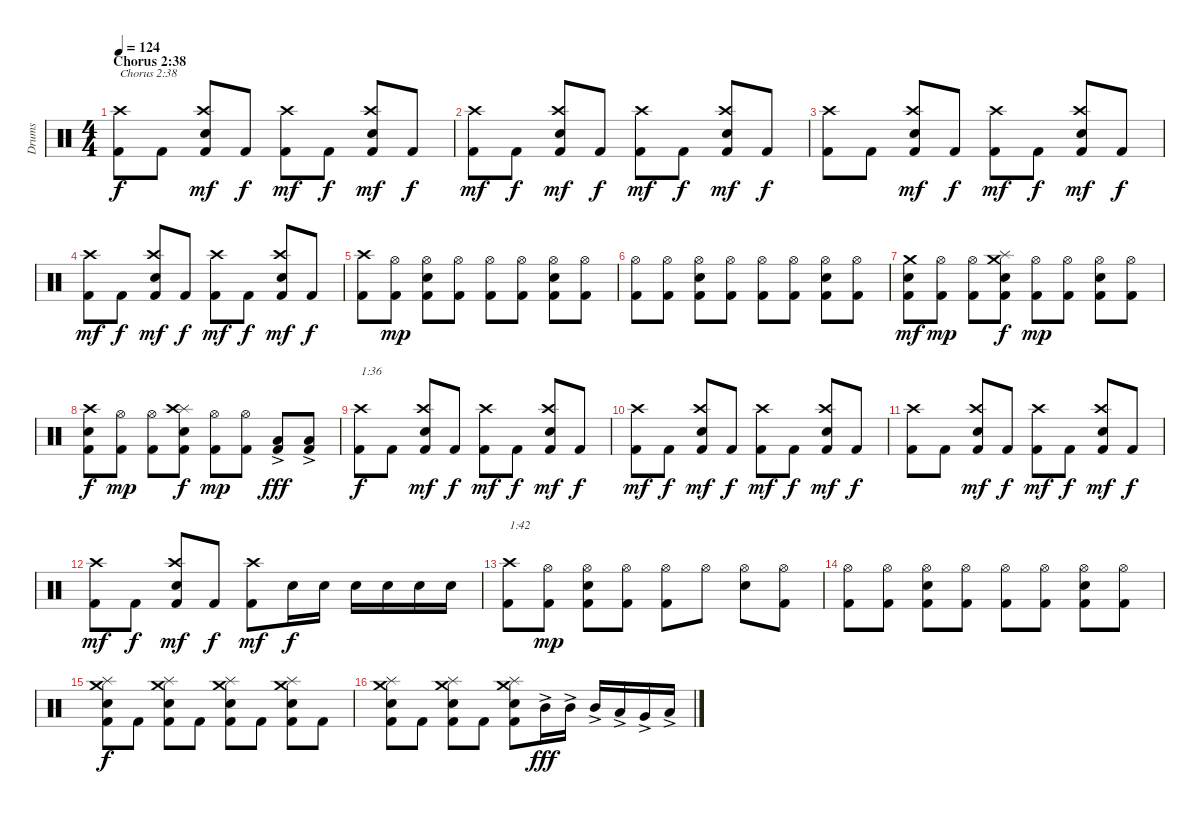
\track ("Drums" "Drums") {instrument percussion}
\staff {score}
\articulation defaults
\ts (4 4)
\section ("" "Chorus 2:38")
\tempo 124
\clef neutral
\ks c
("Kick (hit) 2" "Crash high (hit)").8{txt "Chorus 2:38" dy f} "Kick (hit) 2".8 ("Kick (hit) 2" "Electric Snare (hit)" "Crash high (hit)").8{dy mf} "Kick (hit) 2".8{dy f} ("Kick (hit) 2" "Crash high (hit)").8{dy mf} "Kick (hit) 2".8{dy f} ("Kick (hit) 2" "Electric Snare (hit)" "Crash high (hit)").8{dy mf} "Kick (hit) 2".8{dy f} |
("Kick (hit) 2" "Crash high (hit)").8{dy mf} "Kick (hit) 2".8{dy f} ("Kick (hit) 2" "Electric Snare (hit)" "Crash high (hit)").8{dy mf} "Kick (hit) 2".8{dy f} ("Kick (hit) 2" "Crash high (hit)").8{dy mf} "Kick (hit) 2".8{dy f} ("Kick (hit) 2" "Electric Snare (hit)" "Crash high (hit)").8{dy mf} "Kick (hit) 2".8{dy f} |
("Kick (hit) 2" "Crash high (hit)").8 "Kick (hit) 2".8 ("Kick (hit) 2" "Electric Snare (hit)" "Crash high (hit)").8{dy mf} "Kick (hit) 2".8{dy f} ("Kick (hit) 2" "Crash high (hit)").8{dy mf} "Kick (hit) 2".8{dy f} ("Kick (hit) 2" "Electric Snare (hit)" "Crash high (hit)").8{dy mf} "Kick (hit) 2".8{dy f} |
("Kick (hit) 2" "Crash high (hit)").8{dy mf} "Kick (hit) 2".8{dy f} ("Kick (hit) 2" "Electric Snare (hit)" "Crash high (hit)").8{dy mf} "Kick (hit) 2".8{dy f} ("Kick (hit) 2" "Crash high (hit)").8{dy mf} "Kick (hit) 2".8{dy f} ("Kick (hit) 2" "Electric Snare (hit)" "Crash high (hit)").8{dy mf} "Kick (hit) 2".8{dy f} |
("Kick (hit) 2" "Crash high (hit)").8 ("Kick (hit) 2" "Hi-Hat (open)").8{dy mp} ("Kick (hit) 2" "Electric Snare (hit)" "Hi-Hat (open)").8 ("Kick (hit) 2" "Hi-Hat (open)").8 ("Kick (hit) 2" "Hi-Hat (open)").8 ("Kick (hit) 2" "Hi-Hat (open)").8 ("Kick (hit) 2" "Electric Snare (hit)" "Hi-Hat (open)").8 ("Kick (hit) 2" "Hi-Hat (open)").8 |
("Kick (hit) 2" "Hi-Hat (open)").8 ("Kick (hit) 2" "Hi-Hat (open)").8 ("Kick (hit) 2" "Electric Snare (hit)" "Hi-Hat (open)").8 ("Kick (hit) 2" "Hi-Hat (open)").8 ("Kick (hit) 2" "Hi-Hat (open)").8 ("Kick (hit) 2" "Hi-Hat (open)").8 ("Kick (hit) 2" "Electric Snare (hit)" "Hi-Hat (open)").8 ("Kick (hit) 2" "Hi-Hat (open)").8 |
("Kick (hit) 2" "Electric Snare (hit)" "Crash medium (hit)").8{dy mf} ("Kick (hit) 2" "Hi-Hat (open)").8{dy mp} ("Kick (hit) 2" "Hi-Hat (open)").8 ("Kick (hit) 2" "Electric Snare (hit)" "Splash (hit)" "Crash medium (hit)").8{dy f} ("Kick (hit) 2" "Hi-Hat (open)").8{dy mp} ("Kick (hit) 2" "Hi-Hat (open)").8 ("Kick (hit) 2" "Electric Snare (hit)" "Hi-Hat (open)").8 ("Kick (hit) 2" "Hi-Hat (open)").8 |
("Kick (hit) 2" "Electric Snare (hit)" "Crash high (hit)").8{dy f} ("Kick (hit) 2" "Hi-Hat (open)").8{dy mp} ("Kick (hit) 2" "Hi-Hat (open)").8 ("Kick (hit) 2" "Electric Snare (hit)" "Splash (hit)" "Crash high (hit)").8{dy f} ("Kick (hit) 2" "Hi-Hat (open)").8{dy mp} ("Kick (hit) 2" "Hi-Hat (open)").8 ("Kick (hit) 2" "Low Tom (hit)"{ac}).8{dy fff} ("Kick (hit) 2" "Low Tom (hit)"{ac}).8 |
("Kick (hit) 2" "Crash high (hit)").8{txt "1:36" dy f} "Kick (hit) 2".8 ("Kick (hit) 2" "Electric Snare (hit)" "Crash high (hit)").8{dy mf} "Kick (hit) 2".8{dy f} ("Kick (hit) 2" "Crash high (hit)").8{dy mf} "Kick (hit) 2".8{dy f} ("Kick (hit) 2" "Electric Snare (hit)" "Crash high (hit)").8{dy mf} "Kick (hit) 2".8{dy f} |
("Kick (hit) 2" "Crash high (hit)").8{dy mf} "Kick (hit) 2".8{dy f} ("Kick (hit) 2" "Electric Snare (hit)" "Crash high (hit)").8{dy mf} "Kick (hit) 2".8{dy f} ("Kick (hit) 2" "Crash high (hit)").8{dy mf} "Kick (hit) 2".8{dy f} ("Kick (hit) 2" "Electric Snare (hit)" "Crash high (hit)").8{dy mf} "Kick (hit) 2".8{dy f} |
("Kick (hit) 2" "Crash high (hit)").8 "Kick (hit) 2".8 ("Kick (hit) 2" "Electric Snare (hit)" "Crash high (hit)").8{dy mf} "Kick (hit) 2".8{dy f} ("Kick (hit) 2" "Crash high (hit)").8{dy mf} "Kick (hit) 2".8{dy f} ("Kick (hit) 2" "Electric Snare (hit)" "Crash high (hit)").8{dy mf} "Kick (hit) 2".8{dy f} |
("Kick (hit) 2" "Crash high (hit)").8{dy mf} "Kick (hit) 2".8{dy f} ("Kick (hit) 2" "Electric Snare (hit)" "Crash high (hit)").8{dy mf} "Kick (hit) 2".8{dy f} ("Kick (hit) 2" "Crash high (hit)").8{dy mf} "Electric Snare (hit)".16{dy f} "Electric Snare (hit)".16 "Electric Snare (hit)".16 "Electric Snare (hit)".16 "Electric Snare (hit)".16 "Electric Snare (hit)".16 |
("Kick (hit) 2" "Crash high (hit)").8{txt "1:42"} ("Kick (hit) 2" "Hi-Hat (open)").8{dy mp} ("Kick (hit) 2" "Electric Snare (hit)" "Hi-Hat (open)").8 ("Kick (hit) 2" "Hi-Hat (open)").8 ("Kick (hit) 2" "Hi-Hat (open)").8 "Hi-Hat (open)".8 ("Electric Snare (hit)" "Hi-Hat (open)").8 ("Kick (hit) 2" "Hi-Hat (open)").8 |
("Kick (hit) 2" "Hi-Hat (open)").8 ("Kick (hit) 2" "Hi-Hat (open)").8 ("Kick (hit) 2" "Electric Snare (hit)" "Hi-Hat (open)").8 ("Kick (hit) 2" "Hi-Hat (open)").8 ("Kick (hit) 2" "Hi-Hat (open)").8 ("Kick (hit) 2" "Hi-Hat (open)").8 ("Kick (hit) 2" "Electric Snare (hit)" "Hi-Hat (open)").8 ("Kick (hit) 2" "Hi-Hat (open)").8 |
("Kick (hit) 2" "Electric Snare (hit)" "Splash (hit)" "Crash medium (hit)").8{dy f} "Kick (hit) 2".8 ("Kick (hit) 2" "Electric Snare (hit)" "Splash (hit)" "Crash medium (hit)").8 "Kick (hit) 2".8 ("Kick (hit) 2" "Electric Snare (hit)" "Splash (hit)" "Crash medium (hit)").8 "Kick (hit) 2".8 ("Kick (hit) 2" "Electric Snare (hit)" "Splash (hit)" "Crash medium (hit)").8 "Kick (hit) 2".8 |
("Kick (hit) 2" "Electric Snare (hit)" "Splash (hit)" "Crash medium (hit)").8 "Kick (hit) 2".8 ("Kick (hit) 2" "Electric Snare (hit)" "Splash (hit)" "Crash medium (hit)").8 "Kick (hit) 2".8 ("Kick (hit) 2" "Electric Snare (hit)" "Splash (hit)" "Crash medium (hit)").8 "Mid Tom (hit)"{ac}.16{dy fff} "Mid Tom (hit)"{ac}.16 "Mid Tom (hit)"{ac}.16 "Low Tom (hit)"{ac}.16 "Very Low Tom (hit)"{ac}.16 "Low Floor Tom (hit)"{ac}.16
